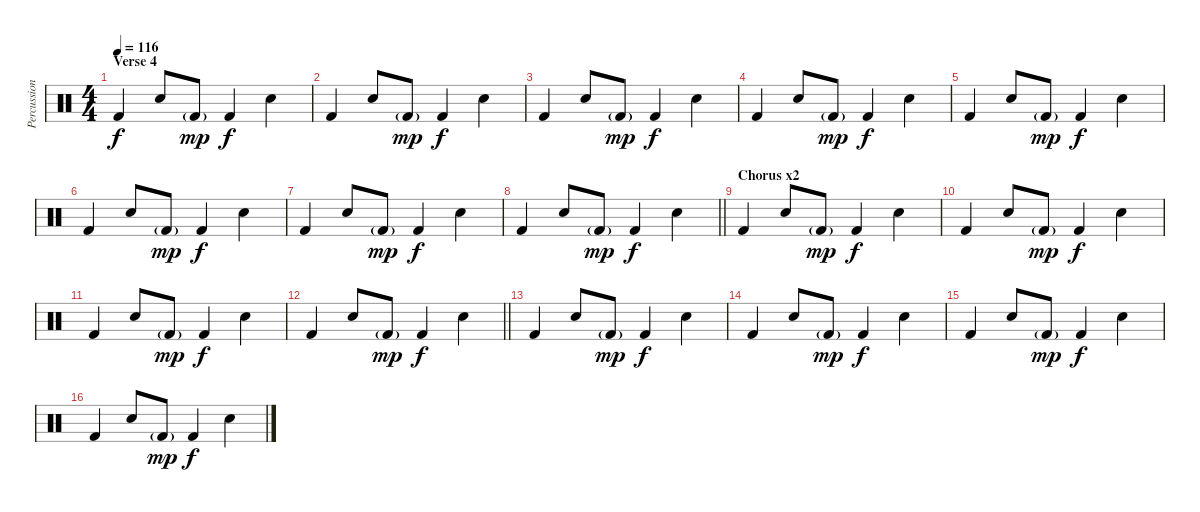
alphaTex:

\track ("Percussion" "Percussion") {instrument percussion}
\staff {score}
\articulation defaults
\ts (4 4)
\section ("" "Verse 4")
\tempo 116
\clef neutral
\ks c "Kick (hit) 2".4{dy f} "Snare (hit) 2".8 "Kick (hit) 2"{g}.8{dy mp} "Kick (hit) 2".4{dy f} "Snare (hit) 2".4
|
"Kick (hit) 2".4 "Snare (hit) 2".8 "Kick (hit) 2"{g}.8{dy mp} "Kick (hit) 2".4{dy f} "Snare (hit) 2".4 |
"Kick (hit) 2".4 "Snare (hit) 2".8 "Kick (hit) 2"{g}.8{dy mp} "Kick (hit) 2".4{dy f} "Snare (hit) 2".4 |
"Kick (hit) 2".4 "Snare (hit) 2".8 "Kick (hit) 2"{g}.8{dy mp} "Kick (hit) 2".4{dy f} "Snare (hit) 2".4 |
"Kick (hit) 2".4 "Snare (hit) 2".8 "Kick (hit) 2"{g}.8{dy mp} "Kick (hit) 2".4{dy f} "Snare (hit) 2".4 |
"Kick (hit) 2".4 "Snare (hit) 2".8 "Kick (hit) 2"{g}.8{dy mp} "Kick (hit) 2".4{dy f} "Snare (hit) 2".4 |
"Kick (hit) 2".4 "Snare (hit) 2".8 "Kick (hit) 2"{g}.8{dy mp} "Kick (hit) 2".4{dy f} "Snare (hit) 2".4 |
\barLineRight lightlight "Kick (hit) 2".4 "Snare (hit) 2".8 "Kick (hit) 2"{g}.8{dy mp} "Kick (hit) 2".4{dy f} "Snare (hit) 2".4
|
\section ("" "Chorus x2")
"Kick (hit) 2".4 "Snare (hit) 2".8 "Kick (hit) 2"{g}.8{dy mp} "Kick (hit) 2".4{dy f} "Snare (hit) 2".4 |
"Kick (hit) 2".4 "Snare (hit) 2".8 "Kick (hit) 2"{g}.8{dy mp} "Kick (hit) 2".4{dy f} "Snare (hit) 2".4 |
"Kick (hit) 2".4 "Snare (hit) 2".8 "Kick (hit) 2"{g}.8{dy mp} "Kick (hit) 2".4{dy f} "Snare (hit) 2".4 |
\barLineRight lightlight "Kick (hit) 2".4 "Snare (hit) 2".8 "Kick (hit) 2"{g}.8{dy mp} "Kick (hit) 2".4{dy f} "Snare (hit) 2".4
|
\section ("" "")
"Kick (hit) 2".4 "Snare (hit) 2".8 "Kick (hit) 2"{g}.8{dy mp} "Kick (hit) 2".4{dy f} "Snare (hit) 2".4 |
"Kick (hit) 2".4 "Snare (hit) 2".8 "Kick (hit) 2"{g}.8{dy mp} "Kick (hit) 2".4{dy f} "Snare (hit) 2".4 |
"Kick (hit) 2".4 "Snare (hit) 2".8 "Kick (hit) 2"{g}.8{dy mp} "Kick (hit) 2".4{dy f} "Snare (hit) 2".4 |
"Kick (hit) 2".4 "Snare (hit) 2".8 "Kick (hit) 2"{g}.8{dy mp} "Kick (hit) 2".4{dy f} "Snare (hit) 2".4
